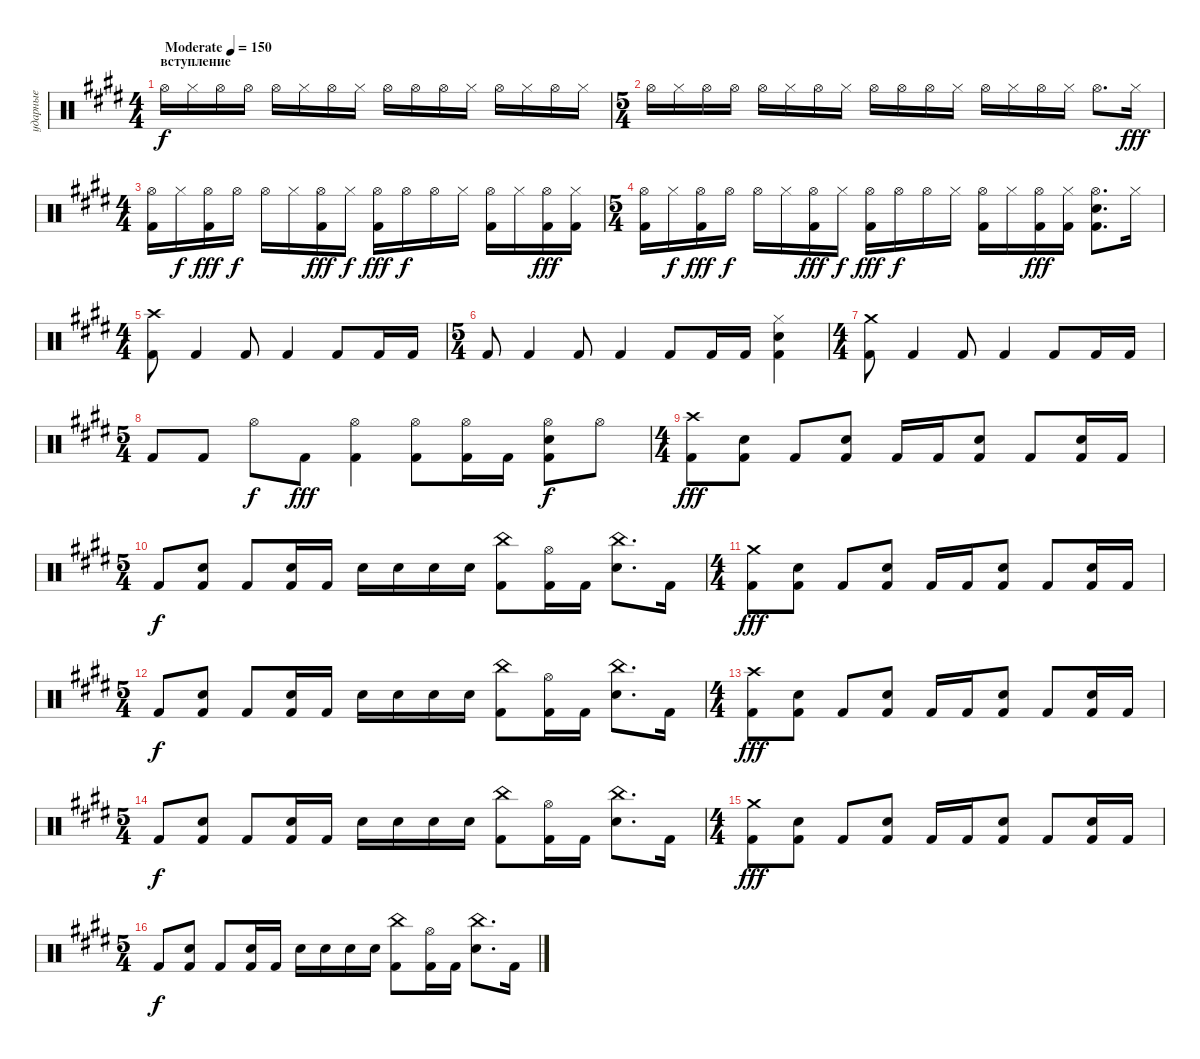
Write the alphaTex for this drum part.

\track ("ударные" "ударные") {instrument percussion}
\staff {score}
\articulation defaults
\ts (4 4)
\section ("" "вступление")
\tempo (150 "Moderate")
\clef neutral
\ks c#minor "Hi-Hat (open)".16{dy f} "Hi-Hat (closed)".16 "Hi-Hat (open)".16 "Hi-Hat (open)".16 "Hi-Hat (open)".16 "Hi-Hat (closed)".16 "Hi-Hat (open)".16 "Hi-Hat (closed)".16 "Hi-Hat (open)".16 "Hi-Hat (open)".16 "Hi-Hat (open)".16 "Hi-Hat (closed)".16 "Hi-Hat (open)".16 "Hi-Hat (closed)".16 "Hi-Hat (open)".16 "Hi-Hat (closed)".16
|
\ts (5 4)
"Hi-Hat (open)".16 "Hi-Hat (closed)".16 "Hi-Hat (open)".16 "Hi-Hat (open)".16 "Hi-Hat (open)".16 "Hi-Hat (closed)".16 "Hi-Hat (open)".16 "Hi-Hat (closed)".16 "Hi-Hat (open)".16 "Hi-Hat (open)".16 "Hi-Hat (open)".16 "Hi-Hat (closed)".16 "Hi-Hat (open)".16 "Hi-Hat (closed)".16 "Hi-Hat (open)".16 "Hi-Hat (closed)".16 "Hi-Hat (open)".8{d} "Hi-Hat (closed)".16{dy fff} |
\ts (4 4)
("Hi-Hat (open)" "Kick (hit) 2").16 "Hi-Hat (closed)".16{dy f} ("Hi-Hat (open)" "Kick (hit) 2").16{dy fff} "Hi-Hat (open)".16{dy f} "Hi-Hat (open)".16 "Hi-Hat (closed)".16 ("Hi-Hat (open)" "Kick (hit) 2").16{dy fff} "Hi-Hat (closed)".16{dy f} ("Hi-Hat (open)" "Kick (hit) 2").16{dy fff} "Hi-Hat (open)".16{dy f} "Hi-Hat (open)".16 "Hi-Hat (closed)".16 ("Hi-Hat (open)" "Kick (hit) 2").16 "Hi-Hat (closed)".16 ("Hi-Hat (open)" "Kick (hit) 2").16{dy fff} ("Hi-Hat (closed)" "Kick (hit) 2").16 |
\ts (5 4)
("Hi-Hat (open)" "Kick (hit) 2").16 "Hi-Hat (closed)".16{dy f} ("Hi-Hat (open)" "Kick (hit) 2").16{dy fff} "Hi-Hat (open)".16{dy f} "Hi-Hat (open)".16 "Hi-Hat (closed)".16 ("Hi-Hat (open)" "Kick (hit) 2").16{dy fff} "Hi-Hat (closed)".16{dy f} ("Hi-Hat (open)" "Kick (hit) 2").16{dy fff} "Hi-Hat (open)".16{dy f} "Hi-Hat (open)".16 "Hi-Hat (closed)".16 ("Hi-Hat (open)" "Kick (hit) 2").16 "Hi-Hat (closed)".16 ("Hi-Hat (open)" "Kick (hit) 2").16{dy fff} ("Hi-Hat (closed)" "Kick (hit) 2").16 ("Hi-Hat (open)" "Electric Snare (hit)" "Kick (hit) 2").8{d} "Hi-Hat (closed)".16 |
\ts (4 4)
("Crash high (hit)" "Kick (hit) 2").8 "Kick (hit) 2".4 "Kick (hit) 2".8 "Kick (hit) 2".4 "Kick (hit) 2".8 "Kick (hit) 2".16 "Kick (hit) 2".16 |
\ts (5 4)
"Kick (hit) 2".8 "Kick (hit) 2".4 "Kick (hit) 2".8 "Kick (hit) 2".4 "Kick (hit) 2".8 "Kick (hit) 2".16 "Kick (hit) 2".16 ("Hi-Hat (closed)" "Electric Snare (hit)" "Kick (hit) 2").4 |
\ts (4 4)
("Crash medium (hit)" "Kick (hit) 2").8 "Kick (hit) 2".4 "Kick (hit) 2".8 "Kick (hit) 2".4 "Kick (hit) 2".8 "Kick (hit) 2".16 "Kick (hit) 2".16 |
\ts (5 4)
"Kick (hit) 2".8 "Kick (hit) 2".8 "Hi-Hat (open)".8{dy f} "Kick (hit) 2".8{dy fff} ("Hi-Hat (open)" "Kick (hit) 2").4 ("Hi-Hat (open)" "Kick (hit) 2").8 ("Hi-Hat (open)" "Kick (hit) 2").16 "Kick (hit) 2".16 ("Hi-Hat (open)" "Electric Snare (hit)" "Kick (hit) 2").8{dy f} "Hi-Hat (open)".8 |
\ts (4 4)
("Crash high (hit)" "Kick (hit) 2").8{dy fff} ("Electric Snare (hit)" "Kick (hit) 2").8 "Kick (hit) 2".8 ("Electric Snare (hit)" "Kick (hit) 2").8 "Kick (hit) 2".16 "Kick (hit) 2".16 ("Electric Snare (hit)" "Kick (hit) 2").8 "Kick (hit) 2".8 ("Electric Snare (hit)" "Kick (hit) 2").16 "Kick (hit) 2".16 |
\ts (5 4)
"Kick (hit) 2".8{dy f} ("Kick (hit) 2" "Electric Snare (hit)").8 "Kick (hit) 2".8 ("Kick (hit) 2" "Electric Snare (hit)").16 "Kick (hit) 2".16 "Electric Snare (hit)".16 "Electric Snare (hit)".16 "Electric Snare (hit)".16 "Electric Snare (hit)".16 ("Kick (hit) 2" "China (hit)").8 ("Kick (hit) 2" "Hi-Hat (open)").16 "Kick (hit) 2".16 ("Electric Snare (hit)" "China (hit)").8{d} "Kick (hit) 2".16 |
\ts (4 4)
("Crash medium (hit)" "Kick (hit) 2").8{dy fff} ("Electric Snare (hit)" "Kick (hit) 2").8 "Kick (hit) 2".8 ("Electric Snare (hit)" "Kick (hit) 2").8 "Kick (hit) 2".16 "Kick (hit) 2".16 ("Electric Snare (hit)" "Kick (hit) 2").8 "Kick (hit) 2".8 ("Electric Snare (hit)" "Kick (hit) 2").16 "Kick (hit) 2".16 |
\ts (5 4)
"Kick (hit) 2".8{dy f} ("Kick (hit) 2" "Electric Snare (hit)").8 "Kick (hit) 2".8 ("Kick (hit) 2" "Electric Snare (hit)").16 "Kick (hit) 2".16 "Electric Snare (hit)".16 "Electric Snare (hit)".16 "Electric Snare (hit)".16 "Electric Snare (hit)".16 ("Kick (hit) 2" "China (hit)").8 ("Kick (hit) 2" "Hi-Hat (open)").16 "Kick (hit) 2".16 ("Electric Snare (hit)" "China (hit)").8{d} "Kick (hit) 2".16 |
\ts (4 4)
("Crash high (hit)" "Kick (hit) 2").8{dy fff} ("Electric Snare (hit)" "Kick (hit) 2").8 "Kick (hit) 2".8 ("Electric Snare (hit)" "Kick (hit) 2").8 "Kick (hit) 2".16 "Kick (hit) 2".16 ("Electric Snare (hit)" "Kick (hit) 2").8 "Kick (hit) 2".8 ("Electric Snare (hit)" "Kick (hit) 2").16 "Kick (hit) 2".16 |
\ts (5 4)
"Kick (hit) 2".8{dy f} ("Kick (hit) 2" "Electric Snare (hit)").8 "Kick (hit) 2".8 ("Kick (hit) 2" "Electric Snare (hit)").16 "Kick (hit) 2".16 "Electric Snare (hit)".16 "Electric Snare (hit)".16 "Electric Snare (hit)".16 "Electric Snare (hit)".16 ("Kick (hit) 2" "China (hit)").8 ("Kick (hit) 2" "Hi-Hat (open)").16 "Kick (hit) 2".16 ("Electric Snare (hit)" "China (hit)").8{d} "Kick (hit) 2".16 |
\ts (4 4)
("Crash medium (hit)" "Kick (hit) 2").8{dy fff} ("Electric Snare (hit)" "Kick (hit) 2").8 "Kick (hit) 2".8 ("Electric Snare (hit)" "Kick (hit) 2").8 "Kick (hit) 2".16 "Kick (hit) 2".16 ("Electric Snare (hit)" "Kick (hit) 2").8 "Kick (hit) 2".8 ("Electric Snare (hit)" "Kick (hit) 2").16 "Kick (hit) 2".16 |
\ts (5 4)
"Kick (hit) 2".8{dy f} ("Kick (hit) 2" "Electric Snare (hit)").8 "Kick (hit) 2".8 ("Kick (hit) 2" "Electric Snare (hit)").16 "Kick (hit) 2".16 "Electric Snare (hit)".16 "Electric Snare (hit)".16 "Electric Snare (hit)".16 "Electric Snare (hit)".16 ("Kick (hit) 2" "China (hit)").8 ("Kick (hit) 2" "Hi-Hat (open)").16 "Kick (hit) 2".16 ("Electric Snare (hit)" "China (hit)").8{d} "Kick (hit) 2".16
